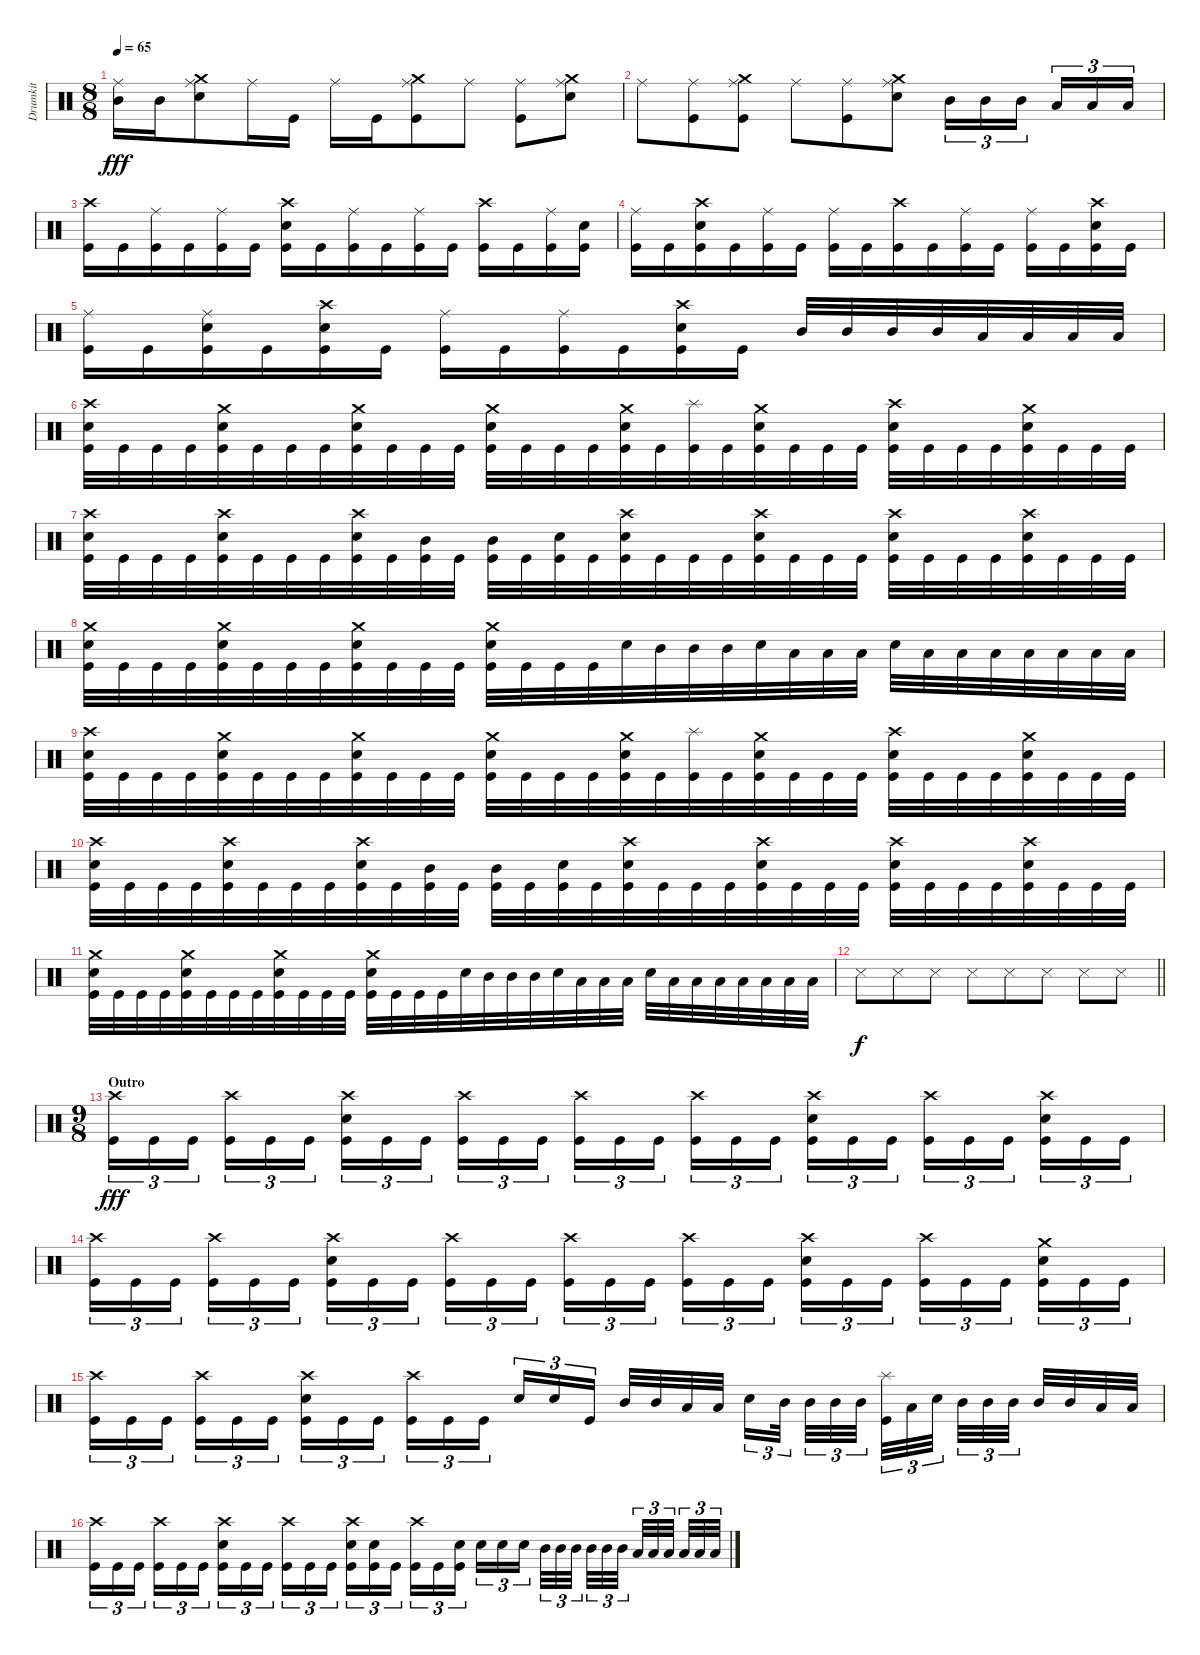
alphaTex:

\track ("Drumkit" "Drumkit") {instrument percussion}
\staff {score}
\articulation defaults
\ts (8 8)
\tempo 65
\clef neutral
\ks c
("Ride (middle)" "Mid Tom (hit)").16{dy fff} "Mid Tom (hit)".16 ("Ride (middle)" "Crash medium (hit)" "Snare (hit) 2").8 "Ride (middle)".16 "Kick (hit)".16 "Ride (middle)".16 "Kick (hit)".16 ("Ride (middle)" "Crash medium (hit)" "Kick (hit)").8 "Ride (middle)".8 ("Ride (middle)" "Kick (hit)").8 ("Ride (middle)" "Crash medium (hit)" "Snare (hit) 2").8 |
"Ride (middle)".8 ("Ride (middle)" "Kick (hit)").8 ("Ride (middle)" "Crash medium (hit)" "Kick (hit)").8 "Ride (middle)".8 ("Ride (middle)" "Kick (hit)").8 ("Ride (middle)" "Crash medium (hit)" "Snare (hit) 2").8 "Mid Tom (hit)".16{tu (3 2)} "Mid Tom (hit)".16{tu (3 2)} "Mid Tom (hit)".16{tu (3 2)} "Low Tom (hit)".16{tu (3 2)} "Low Tom (hit)".16{tu (3 2)} "Low Tom (hit)".16{tu (3 2)} |
("Kick (hit)" "Crash high (hit)").16 "Kick (hit)".16 ("Kick (hit)" "Ride (middle)").16 "Kick (hit)".16 ("Kick (hit)" "Ride (middle)").16 "Kick (hit)".16 ("Kick (hit)" "Crash high (hit)" "Snare (hit) 2").16 "Kick (hit)".16 ("Kick (hit)" "Ride (middle)").16 "Kick (hit)".16 ("Kick (hit)" "Ride (middle)").16 "Kick (hit)".16 ("Kick (hit)" "Crash high (hit)").16 "Kick (hit)".16 ("Kick (hit)" "Ride (middle)").16 ("Kick (hit)" "Snare (hit) 2").16 |
("Kick (hit)" "Ride (middle)").16 "Kick (hit)".16 ("Kick (hit)" "Crash high (hit)" "Snare (hit) 2").16 "Kick (hit)".16 ("Kick (hit)" "Ride (middle)").16 "Kick (hit)".16 ("Kick (hit)" "Ride (middle)").16 "Kick (hit)".16 ("Kick (hit)" "Crash high (hit)").16 "Kick (hit)".16 ("Kick (hit)" "Ride (middle)").16 "Kick (hit)".16 ("Kick (hit)" "Ride (middle)").16 "Kick (hit)".16 ("Kick (hit)" "Crash high (hit)" "Snare (hit) 2").16 "Kick (hit)".16 |
("Kick (hit)" "Ride (middle)").16 "Kick (hit)".16 ("Kick (hit)" "Snare (hit) 2" "Ride (middle)").16 "Kick (hit)".16 ("Kick (hit)" "Crash high (hit)" "Snare (hit) 2").16 "Kick (hit)".16 ("Kick (hit)" "Ride (middle)").16 "Kick (hit)".16 ("Kick (hit)" "Ride (middle)").16 "Kick (hit)".16 ("Kick (hit)" "Crash high (hit)" "Snare (hit) 2").16 "Kick (hit)".16 "Mid Tom (hit)".32 "Mid Tom (hit)".32 "Mid Tom (hit)".32 "Mid Tom (hit)".32 "Low Tom (hit)".32 "Low Tom (hit)".32 "Low Tom (hit)".32 "Low Tom (hit)".32 |
("Snare (hit) 2" "Kick (hit)" "Crash high (hit)").32 "Kick (hit)".32 "Kick (hit)".32 "Kick (hit)".32 ("Snare (hit) 2" "Kick (hit)" "Crash medium (hit)").32 "Kick (hit)".32 "Kick (hit)".32 "Kick (hit)".32 ("Snare (hit) 2" "Kick (hit)" "Crash medium (hit)").32 "Kick (hit)".32 "Kick (hit)".32 "Kick (hit)".32 ("Snare (hit) 2" "Kick (hit)" "Crash medium (hit)").32 "Kick (hit)".32 "Kick (hit)".32 "Kick (hit)".32 ("Snare (hit) 2" "Kick (hit)" "Crash medium (hit)").32 "Kick (hit)".32 ("Kick (hit)" "Splash (hit)").32 "Kick (hit)".32 ("Snare (hit) 2" "Kick (hit)" "Crash medium (hit)").32 "Kick (hit)".32 "Kick (hit)".32 "Kick (hit)".32 ("Snare (hit) 2" "Kick (hit)" "Crash high (hit)").32 "Kick (hit)".32 "Kick (hit)".32 "Kick (hit)".32 ("Snare (hit) 2" "Kick (hit)" "Crash medium (hit)").32 "Kick (hit)".32 "Kick (hit)".32 "Kick (hit)".32 |
("Snare (hit) 2" "Kick (hit)" "Crash high (hit)").32 "Kick (hit)".32 "Kick (hit)".32 "Kick (hit)".32 ("Snare (hit) 2" "Kick (hit)" "Crash high (hit)").32 "Kick (hit)".32 "Kick (hit)".32 "Kick (hit)".32 ("Snare (hit) 2" "Kick (hit)" "Crash high (hit)").32 "Kick (hit)".32 ("Kick (hit)" "Mid Tom (hit)").32 "Kick (hit)".32 ("Kick (hit)" "Mid Tom (hit)").32 "Kick (hit)".32 ("Kick (hit)" "Snare (hit) 2").32 "Kick (hit)".32 ("Snare (hit) 2" "Kick (hit)" "Crash high (hit)").32 "Kick (hit)".32 "Kick (hit)".32 "Kick (hit)".32 ("Snare (hit) 2" "Kick (hit)" "Crash high (hit)").32 "Kick (hit)".32 "Kick (hit)".32 "Kick (hit)".32 ("Snare (hit) 2" "Kick (hit)" "Crash high (hit)").32 "Kick (hit)".32 "Kick (hit)".32 "Kick (hit)".32 ("Snare (hit) 2" "Kick (hit)" "Crash high (hit)").32 "Kick (hit)".32 "Kick (hit)".32 "Kick (hit)".32 |
("Snare (hit) 2" "Kick (hit)" "Crash medium (hit)").32 "Kick (hit)".32 "Kick (hit)".32 "Kick (hit)".32 ("Snare (hit) 2" "Kick (hit)" "Crash medium (hit)").32 "Kick (hit)".32 "Kick (hit)".32 "Kick (hit)".32 ("Snare (hit) 2" "Kick (hit)" "Crash medium (hit)").32 "Kick (hit)".32 "Kick (hit)".32 "Kick (hit)".32 ("Snare (hit) 2" "Kick (hit)" "Crash medium (hit)").32 "Kick (hit)".32 "Kick (hit)".32 "Kick (hit)".32 "Snare (hit) 2".32 "Mid Tom (hit)".32 "Mid Tom (hit)".32 "Mid Tom (hit)".32 "Snare (hit) 2".32 "Low Tom (hit)".32 "Low Tom (hit)".32 "Low Tom (hit)".32 "Snare (hit) 2".32 "Low Tom (hit)".32 "Low Tom (hit)".32 "Low Tom (hit)".32 "Low Tom (hit)".32 "Low Tom (hit)".32 "Low Floor Tom (hit)".32 "Low Floor Tom (hit)".32 |
("Snare (hit) 2" "Kick (hit)" "Crash high (hit)").32 "Kick (hit)".32 "Kick (hit)".32 "Kick (hit)".32 ("Snare (hit) 2" "Kick (hit)" "Crash medium (hit)").32 "Kick (hit)".32 "Kick (hit)".32 "Kick (hit)".32 ("Snare (hit) 2" "Kick (hit)" "Crash medium (hit)").32 "Kick (hit)".32 "Kick (hit)".32 "Kick (hit)".32 ("Snare (hit) 2" "Kick (hit)" "Crash medium (hit)").32 "Kick (hit)".32 "Kick (hit)".32 "Kick (hit)".32 ("Snare (hit) 2" "Kick (hit)" "Crash medium (hit)").32 "Kick (hit)".32 ("Kick (hit)" "Splash (hit)").32 "Kick (hit)".32 ("Snare (hit) 2" "Kick (hit)" "Crash medium (hit)").32 "Kick (hit)".32 "Kick (hit)".32 "Kick (hit)".32 ("Snare (hit) 2" "Kick (hit)" "Crash high (hit)").32 "Kick (hit)".32 "Kick (hit)".32 "Kick (hit)".32 ("Snare (hit) 2" "Kick (hit)" "Crash medium (hit)").32 "Kick (hit)".32 "Kick (hit)".32 "Kick (hit)".32 |
("Snare (hit) 2" "Kick (hit)" "Crash high (hit)").32 "Kick (hit)".32 "Kick (hit)".32 "Kick (hit)".32 ("Snare (hit) 2" "Kick (hit)" "Crash high (hit)").32 "Kick (hit)".32 "Kick (hit)".32 "Kick (hit)".32 ("Snare (hit) 2" "Kick (hit)" "Crash high (hit)").32 "Kick (hit)".32 ("Kick (hit)" "Mid Tom (hit)").32 "Kick (hit)".32 ("Kick (hit)" "Mid Tom (hit)").32 "Kick (hit)".32 ("Kick (hit)" "Snare (hit) 2").32 "Kick (hit)".32 ("Snare (hit) 2" "Kick (hit)" "Crash high (hit)").32 "Kick (hit)".32 "Kick (hit)".32 "Kick (hit)".32 ("Snare (hit) 2" "Kick (hit)" "Crash high (hit)").32 "Kick (hit)".32 "Kick (hit)".32 "Kick (hit)".32 ("Snare (hit) 2" "Kick (hit)" "Crash high (hit)").32 "Kick (hit)".32 "Kick (hit)".32 "Kick (hit)".32 ("Snare (hit) 2" "Kick (hit)" "Crash high (hit)").32 "Kick (hit)".32 "Kick (hit)".32 "Kick (hit)".32 |
("Snare (hit) 2" "Kick (hit)" "Crash medium (hit)").32 "Kick (hit)".32 "Kick (hit)".32 "Kick (hit)".32 ("Snare (hit) 2" "Kick (hit)" "Crash medium (hit)").32 "Kick (hit)".32 "Kick (hit)".32 "Kick (hit)".32 ("Snare (hit) 2" "Kick (hit)" "Crash medium (hit)").32 "Kick (hit)".32 "Kick (hit)".32 "Kick (hit)".32 ("Snare (hit) 2" "Kick (hit)" "Crash medium (hit)").32 "Kick (hit)".32 "Kick (hit)".32 "Kick (hit)".32 "Snare (hit) 2".32 "Mid Tom (hit)".32 "Mid Tom (hit)".32 "Mid Tom (hit)".32 "Snare (hit) 2".32 "Low Tom (hit)".32 "Low Tom (hit)".32 "Low Tom (hit)".32 "Snare (hit) 2".32 "Low Tom (hit)".32 "Low Tom (hit)".32 "Low Tom (hit)".32 "Low Tom (hit)".32 "Low Tom (hit)".32 "Low Floor Tom (hit)".32 "Low Floor Tom (hit)".32 |
\barLineRight lightlight "Snare (side stick) 3".8{dy f} "Snare (side stick) 3".8 "Snare (side stick) 3".8 "Snare (side stick) 3".8 "Snare (side stick) 3".8 "Snare (side stick) 3".8 "Snare (side stick) 3".8 "Snare (side stick) 3".8
|
\ts (9 8)
\section ("" "Outro")
("Kick (hit)" "Crash high (hit)").16{tu (3 2) dy fff} "Kick (hit)".16{tu (3 2)} "Kick (hit)".16{tu (3 2) beam splitsecondary} ("Kick (hit)" "Crash high (hit)").16{tu (3 2)} "Kick (hit)".16{tu (3 2)} "Kick (hit)".16{tu (3 2) beam splitsecondary} ("Kick (hit)" "Crash high (hit)" "Snare (hit) 2").16{tu (3 2)} "Kick (hit)".16{tu (3 2)} "Kick (hit)".16{tu (3 2)} ("Kick (hit)" "Crash high (hit)").16{tu (3 2)} "Kick (hit)".16{tu (3 2)} "Kick (hit)".16{tu (3 2) beam splitsecondary} ("Kick (hit)" "Crash high (hit)").16{tu (3 2)} "Kick (hit)".16{tu (3 2)} "Kick (hit)".16{tu (3 2) beam splitsecondary} ("Kick (hit)" "Crash high (hit)").16{tu (3 2)} "Kick (hit)".16{tu (3 2)} "Kick (hit)".16{tu (3 2)} ("Kick (hit)" "Crash high (hit)" "Snare (hit) 2").16{tu (3 2)} "Kick (hit)".16{tu (3 2)} "Kick (hit)".16{tu (3 2) beam splitsecondary} ("Kick (hit)" "Crash high (hit)").16{tu (3 2)} "Kick (hit)".16{tu (3 2)} "Kick (hit)".16{tu (3 2) beam splitsecondary} ("Kick (hit)" "Crash high (hit)" "Snare (hit) 2").16{tu (3 2)} "Kick (hit)".16{tu (3 2)} "Kick (hit)".16{tu (3 2)} |
("Kick (hit)" "Crash high (hit)").16{tu (3 2)} "Kick (hit)".16{tu (3 2)} "Kick (hit)".16{tu (3 2) beam splitsecondary} ("Kick (hit)" "Crash high (hit)").16{tu (3 2)} "Kick (hit)".16{tu (3 2)} "Kick (hit)".16{tu (3 2) beam splitsecondary} ("Kick (hit)" "Crash high (hit)" "Snare (hit) 2").16{tu (3 2)} "Kick (hit)".16{tu (3 2)} "Kick (hit)".16{tu (3 2)} ("Kick (hit)" "Crash high (hit)").16{tu (3 2)} "Kick (hit)".16{tu (3 2)} "Kick (hit)".16{tu (3 2) beam splitsecondary} ("Kick (hit)" "Crash high (hit)").16{tu (3 2)} "Kick (hit)".16{tu (3 2)} "Kick (hit)".16{tu (3 2) beam splitsecondary} ("Kick (hit)" "Crash high (hit)").16{tu (3 2)} "Kick (hit)".16{tu (3 2)} "Kick (hit)".16{tu (3 2)} ("Kick (hit)" "Crash high (hit)" "Snare (hit) 2").16{tu (3 2)} "Kick (hit)".16{tu (3 2)} "Kick (hit)".16{tu (3 2) beam splitsecondary} ("Kick (hit)" "Crash high (hit)").16{tu (3 2)} "Kick (hit)".16{tu (3 2)} "Kick (hit)".16{tu (3 2) beam splitsecondary} ("Kick (hit)" "Snare (hit) 2" "Crash medium (hit)").16{tu (3 2)} "Kick (hit)".16{tu (3 2)} "Kick (hit)".16{tu (3 2)} |
("Kick (hit)" "Crash high (hit)").16{tu (3 2)} "Kick (hit)".16{tu (3 2)} "Kick (hit)".16{tu (3 2) beam splitsecondary} ("Kick (hit)" "Crash high (hit)").16{tu (3 2)} "Kick (hit)".16{tu (3 2)} "Kick (hit)".16{tu (3 2) beam splitsecondary} ("Kick (hit)" "Crash high (hit)" "Snare (hit) 2").16{tu (3 2)} "Kick (hit)".16{tu (3 2)} "Kick (hit)".16{tu (3 2)} ("Kick (hit)" "Crash high (hit)").16{tu (3 2)} "Kick (hit)".16{tu (3 2)} "Kick (hit)".16{tu (3 2) beam splitsecondary} "Snare (hit) 2".16{tu (3 2)} "Snare (hit) 2".16{tu (3 2)} "Kick (hit)".16{tu (3 2) beam splitsecondary} "Mid Tom (hit)".32 "Mid Tom (hit)".32 "Low Tom (hit)".32 "Low Tom (hit)".32 "Snare (hit) 2".16{tu (3 2)} "Mid Tom (hit)".32{tu (3 2) beam splitsecondary} "Mid Tom (hit)".32{tu (3 2)} "Mid Tom (hit)".32{tu (3 2)} "Mid Tom (hit)".32{tu (3 2) beam splitsecondary} ("Splash (hit)" "Kick (hit)").32{tu (3 2)} "Low Tom (hit)".32{tu (3 2)} "Snare (hit) 2".32{tu (3 2) beam splitsecondary} "Mid Tom (hit)".32{tu (3 2)} "Mid Tom (hit)".32{tu (3 2)} "Mid Tom (hit)".32{tu (3 2) beam splitsecondary} "Mid Tom (hit)".32 "Mid Tom (hit)".32 "Low Tom (hit)".32 "Low Tom (hit)".32 |
("Kick (hit)" "Crash high (hit)").16{tu (3 2)} "Kick (hit)".16{tu (3 2)} "Kick (hit)".16{tu (3 2) beam splitsecondary} ("Kick (hit)" "Crash high (hit)").16{tu (3 2)} "Kick (hit)".16{tu (3 2)} "Kick (hit)".16{tu (3 2) beam splitsecondary} ("Kick (hit)" "Crash high (hit)" "Snare (hit) 2").16{tu (3 2)} "Kick (hit)".16{tu (3 2)} "Kick (hit)".16{tu (3 2)} ("Kick (hit)" "Crash high (hit)").16{tu (3 2)} "Kick (hit)".16{tu (3 2)} "Kick (hit)".16{tu (3 2) beam splitsecondary} ("Kick (hit)" "Crash high (hit)" "Snare (hit) 2").16{tu (3 2)} ("Kick (hit)" "Snare (hit) 2").16{tu (3 2)} "Kick (hit)".16{tu (3 2) beam splitsecondary} ("Kick (hit)" "Crash high (hit)").16{tu (3 2)} "Kick (hit)".16{tu (3 2)} ("Kick (hit)" "Snare (hit) 2").16{tu (3 2)} "Snare (hit) 2".16{tu (3 2)} "Snare (hit) 2".16{tu (3 2)} "Snare (hit) 2".16{tu (3 2) beam splitsecondary} "Mid Tom (hit)".32{tu (3 2)} "Mid Tom (hit)".32{tu (3 2)} "Mid Tom (hit)".32{tu (3 2) beam splitsecondary} "Mid Tom (hit)".32{tu (3 2)} "Mid Tom (hit)".32{tu (3 2)} "Mid Tom (hit)".32{tu (3 2) beam splitsecondary} "Low Tom (hit)".32{tu (3 2)} "Low Tom (hit)".32{tu (3 2)} "Low Tom (hit)".32{tu (3 2) beam splitsecondary} "Low Tom (hit)".32{tu (3 2)} "Low Tom (hit)".32{tu (3 2)} "Low Tom (hit)".32{tu (3 2)}
